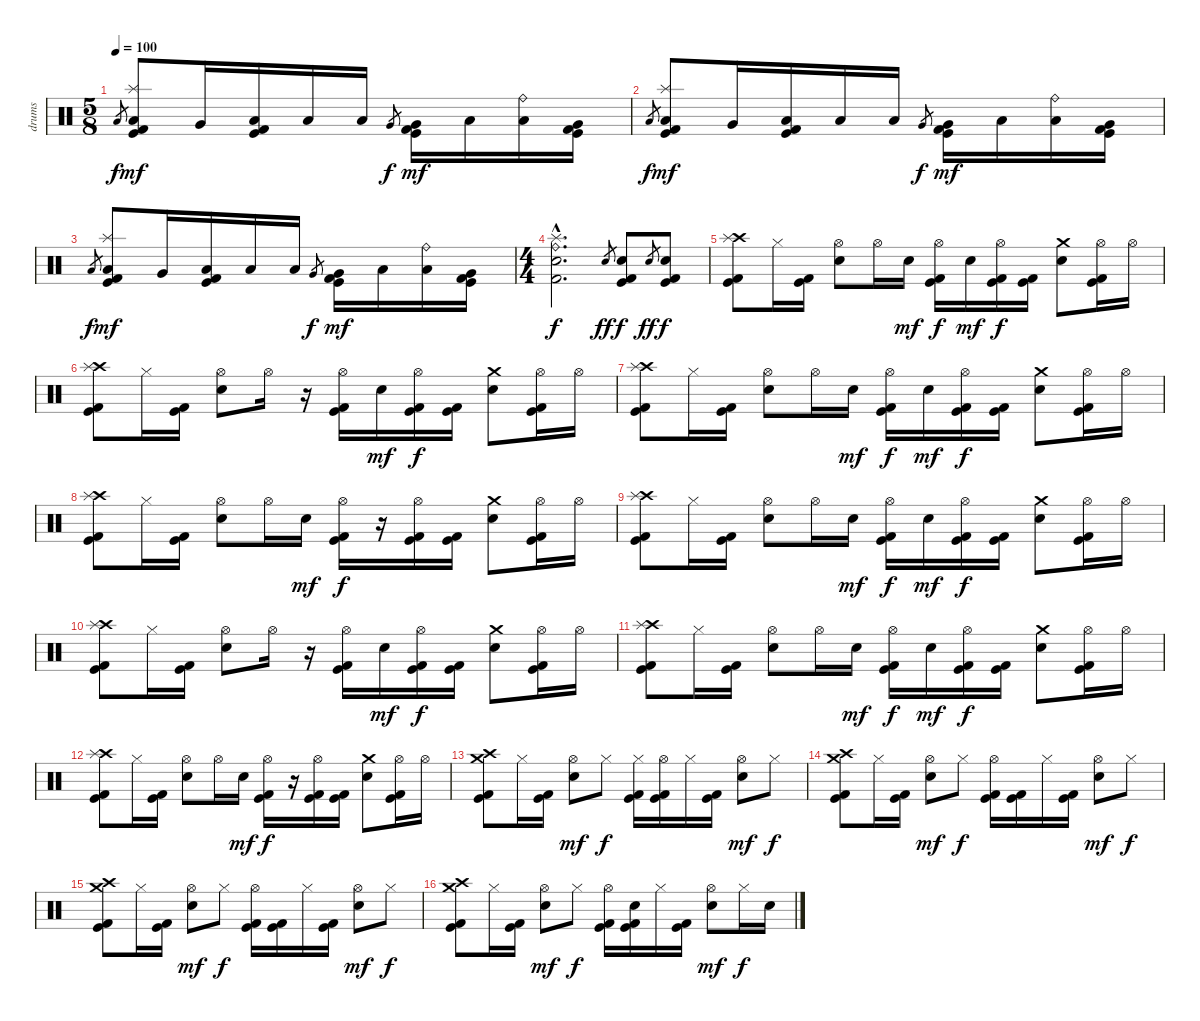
\track ("drums" "drums") {instrument percussion}
\staff {score}
\articulation defaults
\ts (5 8)
\tempo 100
\clef neutral
\ks c "Low Floor Tom (hit)".8{gr dy f}
("Splash (hit)" "Low Floor Tom (hit)" "Kick (hit) 2" "Kick (hit)").8{dy mf} "Very Low Tom (hit)".16 ("Low Tom (hit)" "Kick (hit) 2" "Kick (hit)").16 "Low Floor Tom (hit)".16 "Low Floor Tom (hit)".16 "Very Low Tom (hit)".8{gr dy f} ("Very Low Tom (hit)" "Kick (hit) 2" "Kick (hit)").16{dy mf} "Low Tom (hit)".16 ("Ride (bell)" "Low Tom (hit)").16 ("Very Low Tom (hit)" "Kick (hit) 2" "Kick (hit)").16 |
"Low Floor Tom (hit)".8{gr dy f} ("Splash (hit)" "Low Floor Tom (hit)" "Kick (hit) 2" "Kick (hit)").8{dy mf} "Very Low Tom (hit)".16 ("Low Tom (hit)" "Kick (hit) 2" "Kick (hit)").16 "Low Floor Tom (hit)".16 "Low Floor Tom (hit)".16 "Very Low Tom (hit)".8{gr dy f} ("Very Low Tom (hit)" "Kick (hit) 2" "Kick (hit)").16{dy mf} "Low Tom (hit)".16 ("Ride (bell)" "Low Tom (hit)").16 ("Very Low Tom (hit)" "Kick (hit) 2" "Kick (hit)").16 |
"Low Floor Tom (hit)".8{gr dy f} ("Splash (hit)" "Low Floor Tom (hit)" "Kick (hit) 2" "Kick (hit)").8{dy mf} "Very Low Tom (hit)".16 ("Low Tom (hit)" "Kick (hit) 2" "Kick (hit)").16 "Low Floor Tom (hit)".16 "Low Floor Tom (hit)".16 "Very Low Tom (hit)".8{gr dy f} ("Very Low Tom (hit)" "Kick (hit) 2" "Kick (hit)").16{dy mf} "Low Tom (hit)".16 ("Ride (bell)" "Low Tom (hit)").16 ("Very Low Tom (hit)" "Kick (hit) 2" "Kick (hit)").16 |
\ts (4 4)
("Splash (hit)"{hac} "Electric Snare (hit)"{hac} "Ride (bell)"{hac} "Kick (hit) 2"{hac}).2{d dy f} "Electric Snare (hit)".8{gr dy ff} ("Electric Snare (hit)" "Kick (hit) 2" "Kick (hit)").8{dy f} "Electric Snare (hit)".8{gr dy ff} ("Electric Snare (hit)" "Kick (hit) 2" "Kick (hit)").8{dy f} |
("Crash high (hit)" "Splash (hit)" "Kick (hit) 2" "Kick (hit)").8 "Hi-Hat (closed)".16 ("Kick (hit) 2" "Kick (hit)").16 ("Hi-Hat (open)" "Electric Snare (hit)").8 "Hi-Hat (open)".16 "Electric Snare (hit)".16{dy mf} ("Hi-Hat (open)" "Kick (hit) 2" "Kick (hit)").16{dy f} "Electric Snare (hit)".16{dy mf} ("Hi-Hat (open)" "Kick (hit)" "Kick (hit) 2").16{dy f} ("Kick (hit)" "Kick (hit) 2").16 ("Crash medium (hit)" "Electric Snare (hit)").8 ("Hi-Hat (open)" "Kick (hit)" "Kick (hit) 2").16 "Hi-Hat (open)".16 |
("Crash high (hit)" "Splash (hit)" "Kick (hit) 2" "Kick (hit)").8 "Hi-Hat (closed)".16 ("Kick (hit) 2" "Kick (hit)").16 ("Hi-Hat (open)" "Electric Snare (hit)").8 "Hi-Hat (open)".16 r.16 ("Hi-Hat (open)" "Kick (hit) 2" "Kick (hit)").16 "Electric Snare (hit)".16{dy mf} ("Hi-Hat (open)" "Kick (hit)" "Kick (hit) 2").16{dy f} ("Kick (hit)" "Kick (hit) 2").16 ("Crash medium (hit)" "Electric Snare (hit)").8 ("Hi-Hat (open)" "Kick (hit)" "Kick (hit) 2").16 "Hi-Hat (open)".16 |
("Crash high (hit)" "Splash (hit)" "Kick (hit) 2" "Kick (hit)").8 "Hi-Hat (closed)".16 ("Kick (hit) 2" "Kick (hit)").16 ("Hi-Hat (open)" "Electric Snare (hit)").8 "Hi-Hat (open)".16 "Electric Snare (hit)".16{dy mf} ("Hi-Hat (open)" "Kick (hit) 2" "Kick (hit)").16{dy f} "Electric Snare (hit)".16{dy mf} ("Hi-Hat (open)" "Kick (hit)" "Kick (hit) 2").16{dy f} ("Kick (hit)" "Kick (hit) 2").16 ("Crash medium (hit)" "Electric Snare (hit)").8 ("Hi-Hat (open)" "Kick (hit)" "Kick (hit) 2").16 "Hi-Hat (open)".16 |
("Crash high (hit)" "Splash (hit)" "Kick (hit) 2" "Kick (hit)").8 "Hi-Hat (closed)".16 ("Kick (hit) 2" "Kick (hit)").16 ("Hi-Hat (open)" "Electric Snare (hit)").8 "Hi-Hat (open)".16 "Electric Snare (hit)".16{dy mf} ("Hi-Hat (open)" "Kick (hit) 2" "Kick (hit)").16{dy f} r.16 ("Hi-Hat (open)" "Kick (hit)" "Kick (hit) 2").16 ("Kick (hit)" "Kick (hit) 2").16 ("Crash medium (hit)" "Electric Snare (hit)").8 ("Hi-Hat (open)" "Kick (hit)" "Kick (hit) 2").16 "Hi-Hat (open)".16 |
("Crash high (hit)" "Splash (hit)" "Kick (hit) 2" "Kick (hit)").8 "Hi-Hat (closed)".16 ("Kick (hit) 2" "Kick (hit)").16 ("Hi-Hat (open)" "Electric Snare (hit)").8 "Hi-Hat (open)".16 "Electric Snare (hit)".16{dy mf} ("Hi-Hat (open)" "Kick (hit) 2" "Kick (hit)").16{dy f} "Electric Snare (hit)".16{dy mf} ("Hi-Hat (open)" "Kick (hit)" "Kick (hit) 2").16{dy f} ("Kick (hit)" "Kick (hit) 2").16 ("Crash medium (hit)" "Electric Snare (hit)").8 ("Hi-Hat (open)" "Kick (hit)" "Kick (hit) 2").16 "Hi-Hat (open)".16 |
("Crash high (hit)" "Splash (hit)" "Kick (hit) 2" "Kick (hit)").8 "Hi-Hat (closed)".16 ("Kick (hit) 2" "Kick (hit)").16 ("Hi-Hat (open)" "Electric Snare (hit)").8 "Hi-Hat (open)".16 r.16 ("Hi-Hat (open)" "Kick (hit) 2" "Kick (hit)").16 "Electric Snare (hit)".16{dy mf} ("Hi-Hat (open)" "Kick (hit)" "Kick (hit) 2").16{dy f} ("Kick (hit)" "Kick (hit) 2").16 ("Crash medium (hit)" "Electric Snare (hit)").8 ("Hi-Hat (open)" "Kick (hit)" "Kick (hit) 2").16 "Hi-Hat (open)".16 |
("Crash high (hit)" "Splash (hit)" "Kick (hit) 2" "Kick (hit)").8 "Hi-Hat (closed)".16 ("Kick (hit) 2" "Kick (hit)").16 ("Hi-Hat (open)" "Electric Snare (hit)").8 "Hi-Hat (open)".16 "Electric Snare (hit)".16{dy mf} ("Hi-Hat (open)" "Kick (hit) 2" "Kick (hit)").16{dy f} "Electric Snare (hit)".16{dy mf} ("Hi-Hat (open)" "Kick (hit)" "Kick (hit) 2").16{dy f} ("Kick (hit)" "Kick (hit) 2").16 ("Crash medium (hit)" "Electric Snare (hit)").8 ("Hi-Hat (open)" "Kick (hit)" "Kick (hit) 2").16 "Hi-Hat (open)".16 |
("Crash high (hit)" "Splash (hit)" "Kick (hit) 2" "Kick (hit)").8 "Hi-Hat (closed)".16 ("Kick (hit) 2" "Kick (hit)").16 ("Hi-Hat (open)" "Electric Snare (hit)").8 "Hi-Hat (open)".16 "Electric Snare (hit)".16{dy mf} ("Hi-Hat (open)" "Kick (hit) 2" "Kick (hit)").16{dy f} r.16 ("Hi-Hat (open)" "Kick (hit)" "Kick (hit) 2").16 ("Kick (hit)" "Kick (hit) 2").16 ("Crash medium (hit)" "Electric Snare (hit)").8 ("Hi-Hat (open)" "Kick (hit)" "Kick (hit) 2").16 "Hi-Hat (open)".16 |
("Crash high (hit)" "Crash medium (hit)" "Kick (hit) 2" "Kick (hit)").8 "Hi-Hat (closed)".16 ("Kick (hit) 2" "Kick (hit)").16 ("Hi-Hat (open)" "Electric Snare (hit)").8{dy mf} "Hi-Hat (closed)".8{dy f} ("Hi-Hat (closed)" "Kick (hit) 2" "Kick (hit)").16 ("Hi-Hat (open)" "Kick (hit) 2" "Kick (hit)").16 "Hi-Hat (closed)".16 ("Kick (hit) 2" "Kick (hit)").16 ("Hi-Hat (open)" "Electric Snare (hit)").8{dy mf} "Hi-Hat (closed)".8{dy f} |
("Crash high (hit)" "Crash medium (hit)" "Kick (hit) 2" "Kick (hit)").8 "Hi-Hat (closed)".16 ("Kick (hit) 2" "Kick (hit)").16 ("Hi-Hat (open)" "Electric Snare (hit)").8{dy mf} "Hi-Hat (closed)".8{dy f} ("Hi-Hat (open)" "Kick (hit) 2" "Kick (hit)").16 ("Kick (hit) 2" "Kick (hit)").16 "Hi-Hat (closed)".16 ("Kick (hit) 2" "Kick (hit)").16 ("Hi-Hat (open)" "Electric Snare (hit)").8{dy mf} "Hi-Hat (closed)".8{dy f} |
("Crash high (hit)" "Crash medium (hit)" "Kick (hit) 2" "Kick (hit)").8 "Hi-Hat (closed)".16 ("Kick (hit) 2" "Kick (hit)").16 ("Hi-Hat (open)" "Electric Snare (hit)").8{dy mf} "Hi-Hat (closed)".8{dy f} ("Hi-Hat (open)" "Kick (hit) 2" "Kick (hit)").16 ("Kick (hit) 2" "Kick (hit)").16 "Hi-Hat (closed)".16 ("Kick (hit) 2" "Kick (hit)").16 ("Hi-Hat (open)" "Electric Snare (hit)").8{dy mf} "Hi-Hat (closed)".8{dy f} |
("Crash high (hit)" "Crash medium (hit)" "Kick (hit) 2" "Kick (hit)").8 "Hi-Hat (closed)".16 ("Kick (hit) 2" "Kick (hit)").16 ("Hi-Hat (open)" "Electric Snare (hit)").8{dy mf} "Hi-Hat (closed)".8{dy f} ("Hi-Hat (open)" "Kick (hit) 2" "Kick (hit)").16 ("Electric Snare (hit)" "Kick (hit) 2" "Kick (hit)").16 "Hi-Hat (closed)".16 ("Kick (hit) 2" "Kick (hit)").16 ("Hi-Hat (open)" "Electric Snare (hit)").8{dy mf} "Hi-Hat (closed)".16{dy f} "Electric Snare (hit)".16
